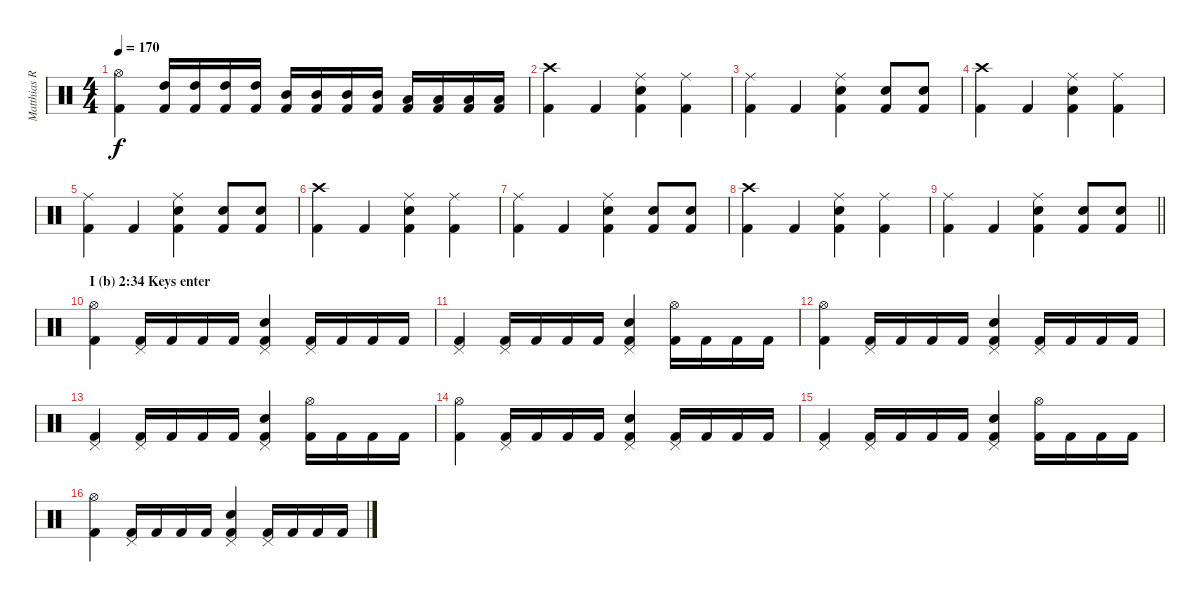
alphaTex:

\track ("Matthias R." "Matthias R") {instrument percussion}
\staff {score}
\articulation defaults
\ts (4 4)
\tempo 170
\clef neutral
\ks c
("Kick (hit) 2" "Hi-Hat (open)").4{dy f} ("High Tom (hit)" "Kick (hit) 2").16 ("High Tom (hit)" "Kick (hit) 2").16 ("High Tom (hit)" "Kick (hit) 2").16 ("High Tom (hit)" "Kick (hit) 2").16 ("Mid Tom (hit)" "Kick (hit) 2").16 ("Mid Tom (hit)" "Kick (hit) 2").16 ("Mid Tom (hit)" "Kick (hit) 2").16 ("Mid Tom (hit)" "Kick (hit) 2").16 ("Low Tom (hit)" "Kick (hit) 2").16 ("Low Tom (hit)" "Kick (hit) 2").16 ("Low Tom (hit)" "Kick (hit) 2").16 ("Low Tom (hit)" "Kick (hit) 2").16 |
("Kick (hit) 2" "Crash high (hit)").4 "Kick (hit) 2".4 ("Kick (hit) 2" "Snare (hit) 2" "Ride (middle)").4 ("Kick (hit) 2" "Ride (middle)").4 |
("Kick (hit) 2" "Ride (middle)").4 "Kick (hit) 2".4 ("Kick (hit) 2" "Snare (hit) 2" "Ride (middle)").4 ("Kick (hit) 2" "Snare (hit) 2").8 ("Kick (hit) 2" "Snare (hit) 2").8 |
("Kick (hit) 2" "Crash high (hit)").4 "Kick (hit) 2".4 ("Kick (hit) 2" "Snare (hit) 2" "Ride (middle)").4 ("Kick (hit) 2" "Ride (middle)").4 |
("Kick (hit) 2" "Ride (middle)").4 "Kick (hit) 2".4 ("Kick (hit) 2" "Snare (hit) 2" "Ride (middle)").4 ("Kick (hit) 2" "Snare (hit) 2").8 ("Kick (hit) 2" "Snare (hit) 2").8 |
("Kick (hit) 2" "Crash high (hit)").4 "Kick (hit) 2".4 ("Kick (hit) 2" "Snare (hit) 2" "Ride (middle)").4 ("Kick (hit) 2" "Ride (middle)").4 |
("Kick (hit) 2" "Ride (middle)").4 "Kick (hit) 2".4 ("Kick (hit) 2" "Snare (hit) 2" "Ride (middle)").4 ("Kick (hit) 2" "Snare (hit) 2").8 ("Kick (hit) 2" "Snare (hit) 2").8 |
("Kick (hit) 2" "Crash high (hit)").4 "Kick (hit) 2".4 ("Kick (hit) 2" "Snare (hit) 2" "Ride (middle)").4 ("Kick (hit) 2" "Ride (middle)").4 |
\barLineRight lightlight
("Kick (hit) 2" "Ride (middle)").4 "Kick (hit) 2".4 ("Kick (hit) 2" "Snare (hit) 2" "Ride (middle)").4 ("Kick (hit) 2" "Snare (hit) 2").8 ("Kick (hit) 2" "Snare (hit) 2").8 |
\section ("" "I (b) 2:34 Keys enter")
("Kick (hit) 2" "Hi-Hat (open)").4 ("Kick (hit) 2" "Pedal Hi-Hat (hit)").16 "Kick (hit) 2".16 "Kick (hit) 2".16 "Kick (hit) 2".16 ("Kick (hit) 2" "Snare (hit) 2" "Pedal Hi-Hat (hit)").4 ("Kick (hit) 2" "Pedal Hi-Hat (hit)").16 "Kick (hit) 2".16 "Kick (hit) 2".16 "Kick (hit) 2".16 |
("Kick (hit) 2" "Pedal Hi-Hat (hit)").4 ("Kick (hit) 2" "Pedal Hi-Hat (hit)").16 "Kick (hit) 2".16 "Kick (hit) 2".16 "Kick (hit) 2".16 ("Kick (hit) 2" "Snare (hit) 2" "Pedal Hi-Hat (hit)").4 ("Kick (hit) 2" "Hi-Hat (open)").16 "Kick (hit) 2".16 "Kick (hit) 2".16 "Kick (hit) 2".16 |
("Kick (hit) 2" "Hi-Hat (open)").4 ("Kick (hit) 2" "Pedal Hi-Hat (hit)").16 "Kick (hit) 2".16 "Kick (hit) 2".16 "Kick (hit) 2".16 ("Kick (hit) 2" "Snare (hit) 2" "Pedal Hi-Hat (hit)").4 ("Kick (hit) 2" "Pedal Hi-Hat (hit)").16 "Kick (hit) 2".16 "Kick (hit) 2".16 "Kick (hit) 2".16 |
("Kick (hit) 2" "Pedal Hi-Hat (hit)").4 ("Kick (hit) 2" "Pedal Hi-Hat (hit)").16 "Kick (hit) 2".16 "Kick (hit) 2".16 "Kick (hit) 2".16 ("Kick (hit) 2" "Snare (hit) 2" "Pedal Hi-Hat (hit)").4 ("Kick (hit) 2" "Hi-Hat (open)").16 "Kick (hit) 2".16 "Kick (hit) 2".16 "Kick (hit) 2".16 |
("Kick (hit) 2" "Hi-Hat (open)").4 ("Kick (hit) 2" "Pedal Hi-Hat (hit)").16 "Kick (hit) 2".16 "Kick (hit) 2".16 "Kick (hit) 2".16 ("Kick (hit) 2" "Snare (hit) 2" "Pedal Hi-Hat (hit)").4 ("Kick (hit) 2" "Pedal Hi-Hat (hit)").16 "Kick (hit) 2".16 "Kick (hit) 2".16 "Kick (hit) 2".16 |
("Kick (hit) 2" "Pedal Hi-Hat (hit)").4 ("Kick (hit) 2" "Pedal Hi-Hat (hit)").16 "Kick (hit) 2".16 "Kick (hit) 2".16 "Kick (hit) 2".16 ("Kick (hit) 2" "Snare (hit) 2" "Pedal Hi-Hat (hit)").4 ("Kick (hit) 2" "Hi-Hat (open)").16 "Kick (hit) 2".16 "Kick (hit) 2".16 "Kick (hit) 2".16 |
("Kick (hit) 2" "Hi-Hat (open)").4 ("Kick (hit) 2" "Pedal Hi-Hat (hit)").16 "Kick (hit) 2".16 "Kick (hit) 2".16 "Kick (hit) 2".16 ("Kick (hit) 2" "Snare (hit) 2" "Pedal Hi-Hat (hit)").4 ("Kick (hit) 2" "Pedal Hi-Hat (hit)").16 "Kick (hit) 2".16 "Kick (hit) 2".16 "Kick (hit) 2".16
